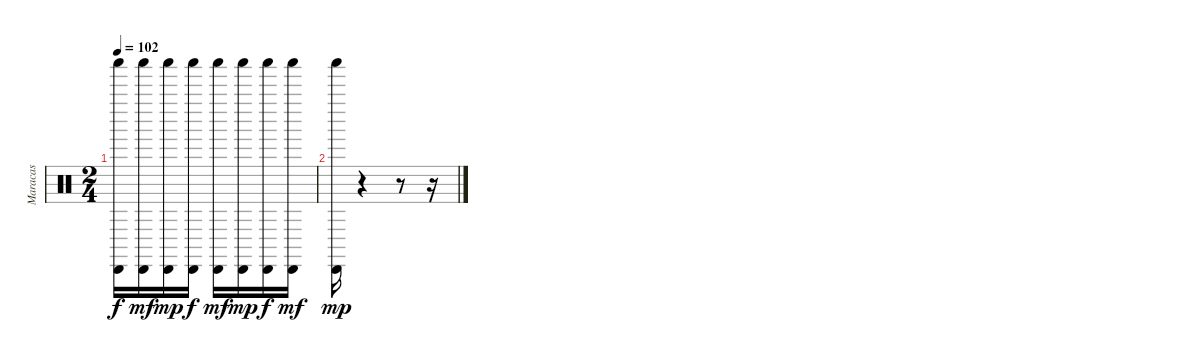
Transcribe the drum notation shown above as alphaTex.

\track ("Maracas" "Maracas") {instrument percussion}
\staff {score}
\articulation defaults
\ts (2 4)
\tempo 102
\clef neutral
\ks c
("Cabasa (hit)" "Shaker (hit)").16{dy f} ("Cabasa (hit)" "Shaker (hit)").16{dy mf} ("Cabasa (hit)" "Shaker (hit)").16{dy mp} ("Cabasa (hit)" "Shaker (hit)").16{dy f} ("Cabasa (hit)" "Shaker (hit)").16{dy mf} ("Cabasa (hit)" "Shaker (hit)").16{dy mp} ("Cabasa (hit)" "Shaker (hit)").16{dy f} ("Cabasa (hit)" "Shaker (hit)").16{dy mf} |
("Shaker (hit)" "Cabasa (hit)").16{dy mp} r.4 r.8 r.16
